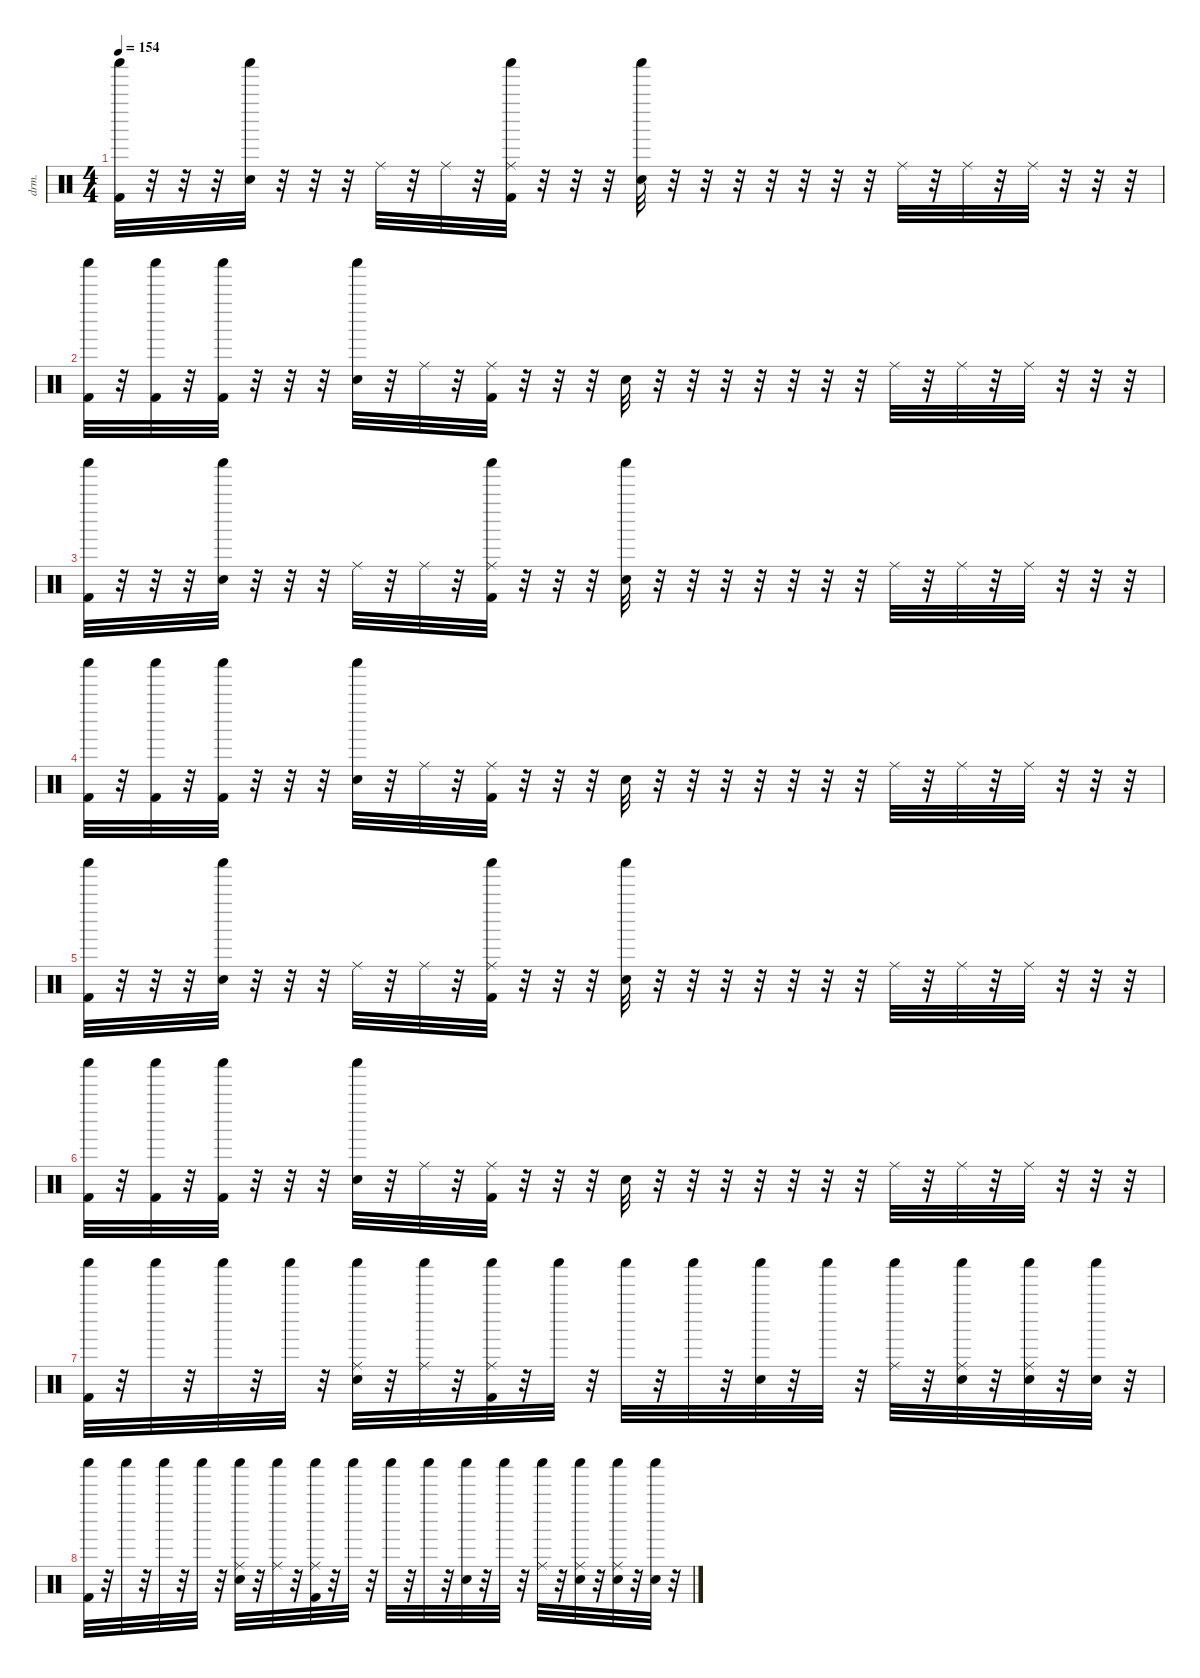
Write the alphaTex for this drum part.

\defaultSystemsLayout 4
\hideDynamics
\bracketExtendMode nobrackets
\otherSystemsTrackNameOrientation horizontal
\track ("Percussion" "drm.") {instrument percussion}
\staff {score}
\articulation defaults
\ts (4 4)
\tempo 154
\clef neutral
\ks c
("Shaker (hit)" "Kick (hit) 2").32{dy f beam Down} r.32{beam Down} r.32{beam Down} r.32{beam Down} ("Shaker (hit)" "Snare (hit) 2").32{beam Down} r.32{beam Down} r.32{beam Down} r.32{beam Down} "Ride (middle)".32{beam Down} r.32{beam Down} "Ride (middle)".32{beam Down} r.32{beam Down} ("Shaker (hit)" "Kick (hit) 2" "Ride (middle)").32{beam Down} r.32{beam Down} r.32{beam Down} r.32{beam Down} ("Shaker (hit)" "Snare (hit) 2").32{beam Down} r.32{beam Down} r.32{beam Down} r.32{beam Down} r.32{beam Down} r.32{beam Down} r.32{beam Down} r.32{beam Down} "Ride (middle)".32{beam Down} r.32{beam Down} "Ride (middle)".32{beam Down} r.32{beam Down} "Ride (middle)".32{beam Down} r.32{beam Down} r.32{beam Down} r.32{beam Down} |
("Shaker (hit)" "Kick (hit) 2").32{beam Down} r.32{beam Down} ("Shaker (hit)" "Kick (hit) 2").32{beam Down} r.32{beam Down} ("Shaker (hit)" "Kick (hit) 2").32{beam Down} r.32{beam Down} r.32{beam Down} r.32{beam Down} ("Shaker (hit)" "Snare (hit) 2").32{beam Down} r.32{beam Down} "Ride (middle)".32{beam Down} r.32{beam Down} ("Kick (hit) 2" "Ride (middle)").32{beam Down} r.32{beam Down} r.32{beam Down} r.32{beam Down} "Snare (hit) 2".32{beam Down} r.32{beam Down} r.32{beam Down} r.32{beam Down} r.32{beam Down} r.32{beam Down} r.32{beam Down} r.32{beam Down} "Ride (middle)".32{beam Down} r.32{beam Down} "Ride (middle)".32{beam Down} r.32{beam Down} "Ride (middle)".32{beam Down} r.32{beam Down} r.32{beam Down} r.32{beam Down} |
("Shaker (hit)" "Kick (hit) 2").32{beam Down} r.32{beam Down} r.32{beam Down} r.32{beam Down} ("Shaker (hit)" "Snare (hit) 2").32{beam Down} r.32{beam Down} r.32{beam Down} r.32{beam Down} "Ride (middle)".32{beam Down} r.32{beam Down} "Ride (middle)".32{beam Down} r.32{beam Down} ("Shaker (hit)" "Kick (hit) 2" "Ride (middle)").32{beam Down} r.32{beam Down} r.32{beam Down} r.32{beam Down} ("Shaker (hit)" "Snare (hit) 2").32{beam Down} r.32{beam Down} r.32{beam Down} r.32{beam Down} r.32{beam Down} r.32{beam Down} r.32{beam Down} r.32{beam Down} "Ride (middle)".32{beam Down} r.32{beam Down} "Ride (middle)".32{beam Down} r.32{beam Down} "Ride (middle)".32{beam Down} r.32{beam Down} r.32{beam Down} r.32{beam Down} |
("Shaker (hit)" "Kick (hit) 2").32{beam Down} r.32{beam Down} ("Shaker (hit)" "Kick (hit) 2").32{beam Down} r.32{beam Down} ("Shaker (hit)" "Kick (hit) 2").32{beam Down} r.32{beam Down} r.32{beam Down} r.32{beam Down} ("Shaker (hit)" "Snare (hit) 2").32{beam Down} r.32{beam Down} "Ride (middle)".32{beam Down} r.32{beam Down} ("Kick (hit) 2" "Ride (middle)").32{beam Down} r.32{beam Down} r.32{beam Down} r.32{beam Down} "Snare (hit) 2".32{beam Down} r.32{beam Down} r.32{beam Down} r.32{beam Down} r.32{beam Down} r.32{beam Down} r.32{beam Down} r.32{beam Down} "Ride (middle)".32{beam Down} r.32{beam Down} "Ride (middle)".32{beam Down} r.32{beam Down} "Ride (middle)".32{beam Down} r.32{beam Down} r.32{beam Down} r.32{beam Down} |
("Shaker (hit)" "Kick (hit) 2").32{beam Down} r.32{beam Down} r.32{beam Down} r.32{beam Down} ("Shaker (hit)" "Snare (hit) 2").32{beam Down} r.32{beam Down} r.32{beam Down} r.32{beam Down} "Ride (middle)".32{beam Down} r.32{beam Down} "Ride (middle)".32{beam Down} r.32{beam Down} ("Shaker (hit)" "Kick (hit) 2" "Ride (middle)").32{beam Down} r.32{beam Down} r.32{beam Down} r.32{beam Down} ("Shaker (hit)" "Snare (hit) 2").32{beam Down} r.32{beam Down} r.32{beam Down} r.32{beam Down} r.32{beam Down} r.32{beam Down} r.32{beam Down} r.32{beam Down} "Ride (middle)".32{beam Down} r.32{beam Down} "Ride (middle)".32{beam Down} r.32{beam Down} "Ride (middle)".32{beam Down} r.32{beam Down} r.32{beam Down} r.32{beam Down} |
("Shaker (hit)" "Kick (hit) 2").32{beam Down} r.32{beam Down} ("Shaker (hit)" "Kick (hit) 2").32{beam Down} r.32{beam Down} ("Shaker (hit)" "Kick (hit) 2").32{beam Down} r.32{beam Down} r.32{beam Down} r.32{beam Down} ("Shaker (hit)" "Snare (hit) 2").32{beam Down} r.32{beam Down} "Ride (middle)".32{beam Down} r.32{beam Down} ("Kick (hit) 2" "Ride (middle)").32{beam Down} r.32{beam Down} r.32{beam Down} r.32{beam Down} "Snare (hit) 2".32{beam Down} r.32{beam Down} r.32{beam Down} r.32{beam Down} r.32{beam Down} r.32{beam Down} r.32{beam Down} r.32{beam Down} "Ride (middle)".32{beam Down} r.32{beam Down} "Ride (middle)".32{beam Down} r.32{beam Down} "Ride (middle)".32{beam Down} r.32{beam Down} r.32{beam Down} r.32{beam Down} |
("Shaker (hit)" "Kick (hit) 2").32{beam Down} r.32{beam Down} "Shaker (hit)".32{beam Down} r.32{beam Down} "Shaker (hit)".32{beam Down} r.32{beam Down} "Shaker (hit)".32{beam Down} r.32{beam Down} ("Shaker (hit)" "Snare (hit) 2" "Ride (middle)").32{beam Down} r.32{beam Down} ("Shaker (hit)" "Ride (middle)").32{beam Down} r.32{beam Down} ("Shaker (hit)" "Kick (hit) 2" "Ride (middle)").32{beam Down} r.32{beam Down} "Shaker (hit)".32{beam Down} r.32{beam Down} "Shaker (hit)".32{beam Down} r.32{beam Down} "Shaker (hit)".32{beam Down} r.32{beam Down} ("Shaker (hit)" "Snare (hit) 2").32{beam Down} r.32{beam Down} "Shaker (hit)".32{beam Down} r.32{beam Down} ("Shaker (hit)" "Ride (middle)").32{beam Down} r.32{beam Down} ("Shaker (hit)" "Snare (hit) 2" "Ride (middle)").32{beam Down} r.32{beam Down} ("Shaker (hit)" "Snare (hit) 2" "Ride (middle)").32{beam Down} r.32{beam Down} ("Shaker (hit)" "Snare (hit) 2").32{beam Down} r.32{beam Down} |
("Shaker (hit)" "Kick (hit) 2").32{beam Down} r.32{beam Down} "Shaker (hit)".32{beam Down} r.32{beam Down} "Shaker (hit)".32{beam Down} r.32{beam Down} "Shaker (hit)".32{beam Down} r.32{beam Down} ("Shaker (hit)" "Snare (hit) 2" "Ride (middle)").32{beam Down} r.32{beam Down} ("Shaker (hit)" "Ride (middle)").32{beam Down} r.32{beam Down} ("Shaker (hit)" "Kick (hit) 2" "Ride (middle)").32{beam Down} r.32{beam Down} "Shaker (hit)".32{beam Down} r.32{beam Down} "Shaker (hit)".32{beam Down} r.32{beam Down} "Shaker (hit)".32{beam Down} r.32{beam Down} ("Shaker (hit)" "Snare (hit) 2").32{beam Down} r.32{beam Down} "Shaker (hit)".32{beam Down} r.32{beam Down} ("Shaker (hit)" "Ride (middle)").32{beam Down} r.32{beam Down} ("Shaker (hit)" "Snare (hit) 2" "Ride (middle)").32{beam Down} r.32{beam Down} ("Shaker (hit)" "Snare (hit) 2" "Ride (middle)").32{beam Down} r.32{beam Down} ("Shaker (hit)" "Snare (hit) 2").32{beam Down} r.32{beam Down}
